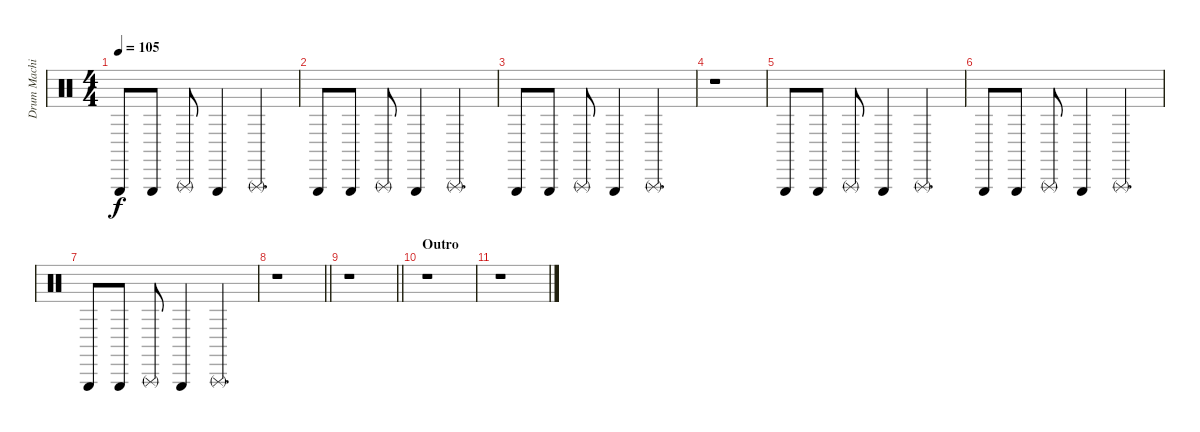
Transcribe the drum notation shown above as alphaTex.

\track ("Drum Machine" "Drum Machi") {instrument percussion}
\staff {score}
\articulation defaults
\ts (4 4)
\tempo 105
\clef neutral
\ks c "Triangle (hit)".8{dy f} "Triangle (hit)".8 "Triangle (rnute)".8 "Triangle (hit)".4 "Triangle (rnute)".4{d}
|
"Triangle (hit)".8 "Triangle (hit)".8 "Triangle (rnute)".8 "Triangle (hit)".4 "Triangle (rnute)".4{d} |
"Triangle (hit)".8 "Triangle (hit)".8 "Triangle (rnute)".8 "Triangle (hit)".4 "Triangle (rnute)".4{d} |
r.1 |
"Triangle (hit)".8 "Triangle (hit)".8 "Triangle (rnute)".8 "Triangle (hit)".4 "Triangle (rnute)".4{d} |
"Triangle (hit)".8 "Triangle (hit)".8 "Triangle (rnute)".8 "Triangle (hit)".4 "Triangle (rnute)".4{d} |
"Triangle (hit)".8 "Triangle (hit)".8 "Triangle (rnute)".8 "Triangle (hit)".4 "Triangle (rnute)".4{d} |
\barLineRight lightlight
r.1 |
\barLineRight lightlight
r.1 |
\section ("" "Outro")
r.1 |
r.1
